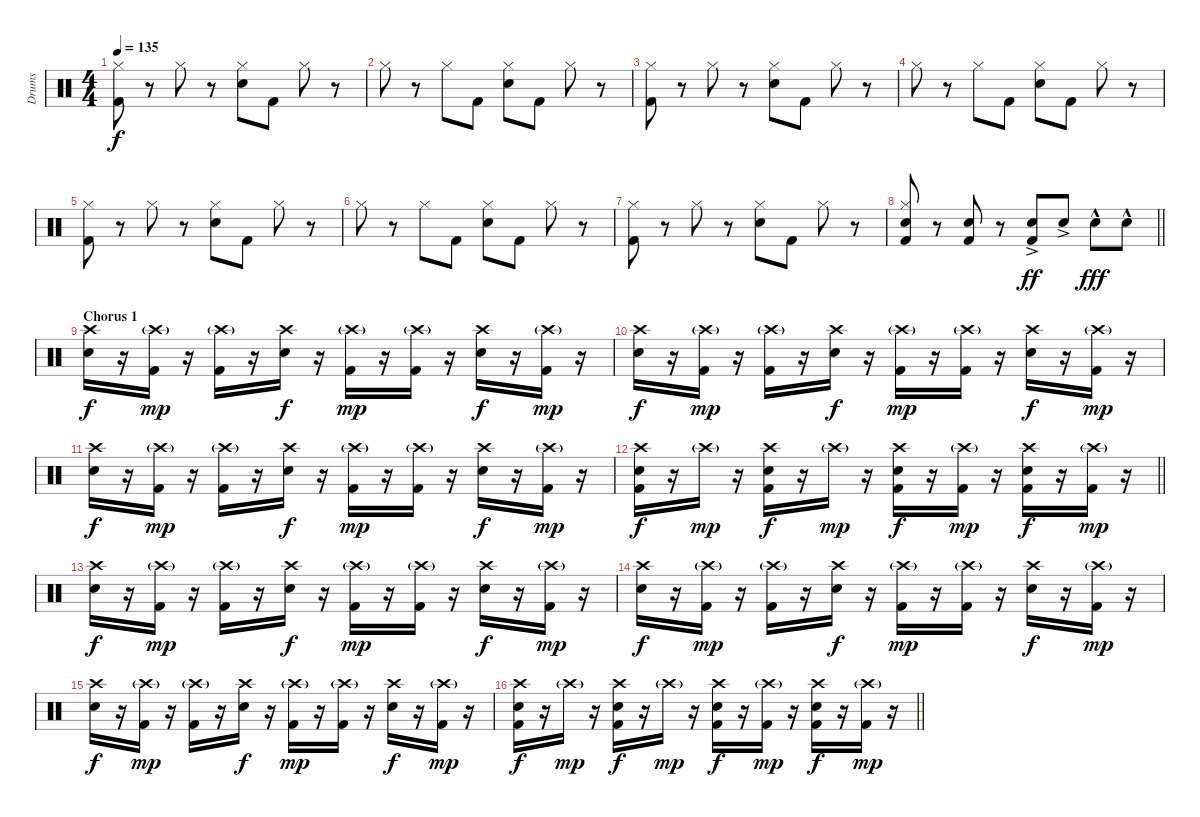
\track ("Drums" "Drums") {instrument percussion}
\staff {score}
\articulation defaults
\ts (4 4)
\tempo 135
\clef neutral
\ks c
("Kick (hit) 2" "Hi-Hat (closed)").8{dy f} r.8 "Hi-Hat (closed)".8 r.8 ("Snare (hit) 2" "Hi-Hat (closed)").8 "Kick (hit) 2".8 "Hi-Hat (closed)".8 r.8 |
"Hi-Hat (closed)".8 r.8 "Hi-Hat (closed)".8 "Kick (hit) 2".8 ("Snare (hit) 2" "Hi-Hat (closed)").8 "Kick (hit) 2".8 "Hi-Hat (closed)".8 r.8 |
("Kick (hit) 2" "Hi-Hat (closed)").8 r.8 "Hi-Hat (closed)".8 r.8 ("Snare (hit) 2" "Hi-Hat (closed)").8 "Kick (hit) 2".8 "Hi-Hat (closed)".8 r.8 |
"Hi-Hat (closed)".8 r.8 "Hi-Hat (closed)".8 "Kick (hit) 2".8 ("Snare (hit) 2" "Hi-Hat (closed)").8 "Kick (hit) 2".8 "Hi-Hat (closed)".8 r.8 |
("Kick (hit) 2" "Hi-Hat (closed)").8 r.8 "Hi-Hat (closed)".8 r.8 ("Snare (hit) 2" "Hi-Hat (closed)").8 "Kick (hit) 2".8 "Hi-Hat (closed)".8 r.8 |
"Hi-Hat (closed)".8 r.8 "Hi-Hat (closed)".8 "Kick (hit) 2".8 ("Snare (hit) 2" "Hi-Hat (closed)").8 "Kick (hit) 2".8 "Hi-Hat (closed)".8 r.8 |
("Kick (hit) 2" "Hi-Hat (closed)").8 r.8 "Hi-Hat (closed)".8 r.8 ("Snare (hit) 2" "Hi-Hat (closed)").8 "Kick (hit) 2".8 "Hi-Hat (closed)".8 r.8 |
\barLineRight lightlight
("Kick (hit) 2" "Snare (hit) 2" "Hi-Hat (closed)").8 r.8 ("Kick (hit) 2" "Snare (hit) 2").8 r.8 ("Kick (hit) 2" "Snare (hit) 2"{ac}).8{dy ff} "Snare (hit) 2"{ac}.8 "Snare (hit) 2"{hac}.8{dy fff} "Snare (hit) 2"{hac}.8 |
\section ("" "Chorus 1")
("Snare (hit) 2" "Crash high (hit)").16{dy f volume 13} r.16 ("Kick (hit) 2" "Crash high (hit)"{g}).16{dy mp} r.16 ("Kick (hit) 2" "Crash high (hit)"{g}).16 r.16 ("Snare (hit) 2" "Crash high (hit)").16{dy f} r.16 ("Kick (hit) 2" "Crash high (hit)"{g}).16{dy mp} r.16 ("Kick (hit) 2" "Crash high (hit)"{g}).16 r.16 ("Snare (hit) 2" "Crash high (hit)").16{dy f} r.16 ("Kick (hit) 2" "Crash high (hit)"{g}).16{dy mp} r.16 |
("Snare (hit) 2" "Crash high (hit)").16{dy f} r.16 ("Kick (hit) 2" "Crash high (hit)"{g}).16{dy mp} r.16 ("Kick (hit) 2" "Crash high (hit)"{g}).16 r.16 ("Snare (hit) 2" "Crash high (hit)").16{dy f} r.16 ("Kick (hit) 2" "Crash high (hit)"{g}).16{dy mp} r.16 ("Kick (hit) 2" "Crash high (hit)"{g}).16 r.16 ("Snare (hit) 2" "Crash high (hit)").16{dy f} r.16 ("Kick (hit) 2" "Crash high (hit)"{g}).16{dy mp} r.16 |
("Snare (hit) 2" "Crash high (hit)").16{dy f} r.16 ("Kick (hit) 2" "Crash high (hit)"{g}).16{dy mp} r.16 ("Kick (hit) 2" "Crash high (hit)"{g}).16 r.16 ("Snare (hit) 2" "Crash high (hit)").16{dy f} r.16 ("Kick (hit) 2" "Crash high (hit)"{g}).16{dy mp} r.16 ("Kick (hit) 2" "Crash high (hit)"{g}).16 r.16 ("Snare (hit) 2" "Crash high (hit)").16{dy f} r.16 ("Kick (hit) 2" "Crash high (hit)"{g}).16{dy mp} r.16 |
\barLineRight lightlight
("Kick (hit) 2" "Snare (hit) 2" "Crash high (hit)").16{dy f} r.16 "Crash high (hit)"{g}.16{dy mp} r.16 ("Kick (hit) 2" "Snare (hit) 2" "Crash high (hit)").16{dy f} r.16 "Crash high (hit)"{g}.16{dy mp} r.16 ("Kick (hit) 2" "Snare (hit) 2" "Crash high (hit)").16{dy f} r.16 ("Kick (hit) 2" "Crash high (hit)"{g}).16{dy mp} r.16 ("Kick (hit) 2" "Snare (hit) 2" "Crash high (hit)").16{dy f} r.16 ("Kick (hit) 2" "Crash high (hit)"{g}).16{dy mp} r.16 |
("Snare (hit) 2" "Crash high (hit)").16{dy f} r.16 ("Kick (hit) 2" "Crash high (hit)"{g}).16{dy mp} r.16 ("Kick (hit) 2" "Crash high (hit)"{g}).16 r.16 ("Snare (hit) 2" "Crash high (hit)").16{dy f} r.16 ("Kick (hit) 2" "Crash high (hit)"{g}).16{dy mp} r.16 ("Kick (hit) 2" "Crash high (hit)"{g}).16 r.16 ("Snare (hit) 2" "Crash high (hit)").16{dy f} r.16 ("Kick (hit) 2" "Crash high (hit)"{g}).16{dy mp} r.16 |
("Snare (hit) 2" "Crash high (hit)").16{dy f} r.16 ("Kick (hit) 2" "Crash high (hit)"{g}).16{dy mp} r.16 ("Kick (hit) 2" "Crash high (hit)"{g}).16 r.16 ("Snare (hit) 2" "Crash high (hit)").16{dy f} r.16 ("Kick (hit) 2" "Crash high (hit)"{g}).16{dy mp} r.16 ("Kick (hit) 2" "Crash high (hit)"{g}).16 r.16 ("Snare (hit) 2" "Crash high (hit)").16{dy f} r.16 ("Kick (hit) 2" "Crash high (hit)"{g}).16{dy mp} r.16 |
("Snare (hit) 2" "Crash high (hit)").16{dy f} r.16 ("Kick (hit) 2" "Crash high (hit)"{g}).16{dy mp} r.16 ("Kick (hit) 2" "Crash high (hit)"{g}).16 r.16 ("Snare (hit) 2" "Crash high (hit)").16{dy f} r.16 ("Kick (hit) 2" "Crash high (hit)"{g}).16{dy mp} r.16 ("Kick (hit) 2" "Crash high (hit)"{g}).16 r.16 ("Snare (hit) 2" "Crash high (hit)").16{dy f} r.16 ("Kick (hit) 2" "Crash high (hit)"{g}).16{dy mp} r.16 |
\barLineRight lightlight
("Kick (hit) 2" "Snare (hit) 2" "Crash high (hit)").16{dy f} r.16 "Crash high (hit)"{g}.16{dy mp} r.16 ("Kick (hit) 2" "Snare (hit) 2" "Crash high (hit)").16{dy f} r.16 "Crash high (hit)"{g}.16{dy mp} r.16 ("Kick (hit) 2" "Snare (hit) 2" "Crash high (hit)").16{dy f} r.16 ("Kick (hit) 2" "Crash high (hit)"{g}).16{dy mp} r.16 ("Kick (hit) 2" "Snare (hit) 2" "Crash high (hit)").16{dy f} r.16 ("Kick (hit) 2" "Crash high (hit)"{g}).16{dy mp} r.16
